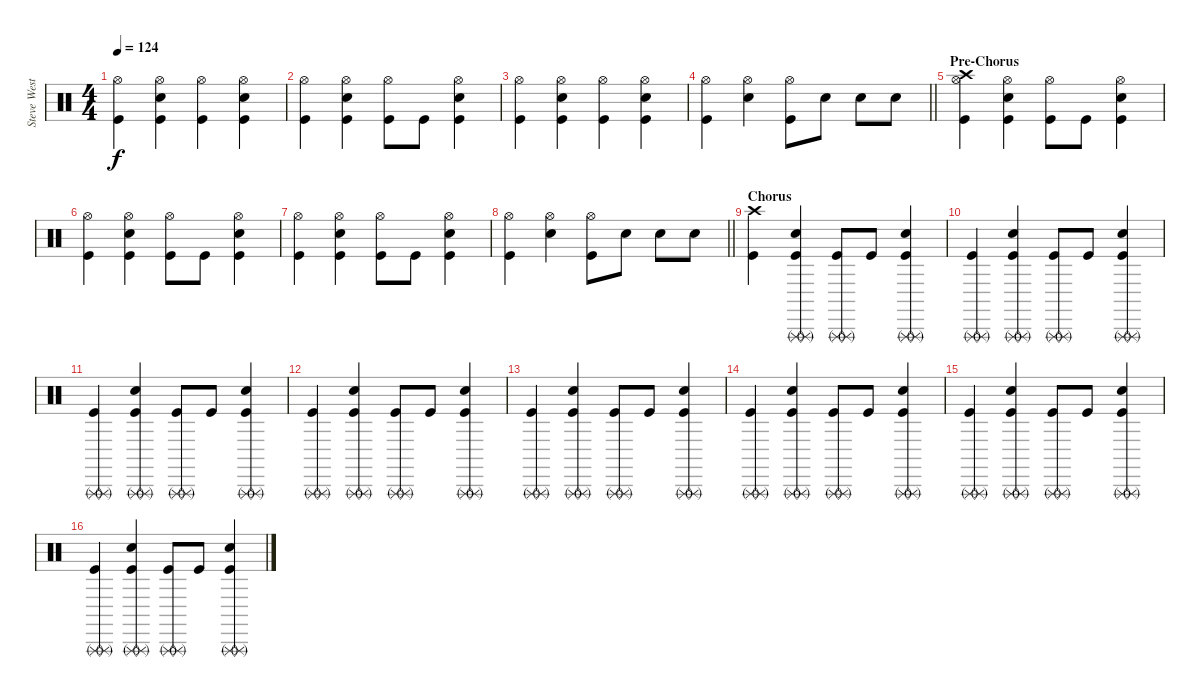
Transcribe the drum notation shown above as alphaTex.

\track ("Steve West" "Steve West") {instrument percussion}
\staff {score}
\articulation defaults
\ts (4 4)
\tempo 124
\clef neutral
\ks c
("Hi-Hat (open)" "Kick (hit)").4{dy f} ("Hi-Hat (open)" "Snare (hit) 2" "Kick (hit)").4 ("Hi-Hat (open)" "Kick (hit)").4 ("Hi-Hat (open)" "Snare (hit) 2" "Kick (hit)").4 |
("Hi-Hat (open)" "Kick (hit)").4 ("Hi-Hat (open)" "Snare (hit) 2" "Kick (hit)").4 ("Hi-Hat (open)" "Kick (hit)").8 "Kick (hit)".8 ("Hi-Hat (open)" "Snare (hit) 2" "Kick (hit)").4 |
("Hi-Hat (open)" "Kick (hit)").4 ("Hi-Hat (open)" "Snare (hit) 2" "Kick (hit)").4 ("Hi-Hat (open)" "Kick (hit)").4 ("Hi-Hat (open)" "Snare (hit) 2" "Kick (hit)").4 |
\barLineRight lightlight
("Hi-Hat (open)" "Kick (hit)").4 ("Hi-Hat (open)" "Snare (hit) 2").4 ("Hi-Hat (open)" "Kick (hit)").8 "Snare (hit) 2".8 "Snare (hit) 2".8 "Snare (hit) 2".8 |
\section ("" "Pre-Chorus")
("Crash high (hit)" "Hi-Hat (open)" "Kick (hit)").4 ("Hi-Hat (open)" "Snare (hit) 2" "Kick (hit)").4 ("Hi-Hat (open)" "Kick (hit)").8 "Kick (hit)".8 ("Hi-Hat (open)" "Snare (hit) 2" "Kick (hit)").4 |
("Hi-Hat (open)" "Kick (hit)").4 ("Hi-Hat (open)" "Snare (hit) 2" "Kick (hit)").4 ("Hi-Hat (open)" "Kick (hit)").8 "Kick (hit)".8 ("Hi-Hat (open)" "Snare (hit) 2" "Kick (hit)").4 |
("Hi-Hat (open)" "Kick (hit)").4 ("Hi-Hat (open)" "Snare (hit) 2" "Kick (hit)").4 ("Hi-Hat (open)" "Kick (hit)").8 "Kick (hit)".8 ("Hi-Hat (open)" "Snare (hit) 2" "Kick (hit)").4 |
\barLineRight lightlight
("Hi-Hat (open)" "Kick (hit)").4 ("Hi-Hat (open)" "Snare (hit) 2").4 ("Hi-Hat (open)" "Kick (hit)").8 "Snare (hit) 2".8 "Snare (hit) 2".8 "Snare (hit) 2".8 |
\section ("" "Chorus")
("Crash high (hit)" "Kick (hit)").4 ("Triangle (rnute)" "Triangle (rnute)" "Snare (hit) 2" "Kick (hit)").4 ("Triangle (rnute)" "Triangle (rnute)" "Kick (hit)").8 "Kick (hit)".8 ("Triangle (rnute)" "Triangle (rnute)" "Snare (hit) 2" "Kick (hit)").4 |
("Triangle (rnute)" "Triangle (rnute)" "Kick (hit)").4 ("Triangle (rnute)" "Triangle (rnute)" "Snare (hit) 2" "Kick (hit)").4 ("Triangle (rnute)" "Triangle (rnute)" "Kick (hit)").8 "Kick (hit)".8 ("Triangle (rnute)" "Triangle (rnute)" "Snare (hit) 2" "Kick (hit)").4 |
("Triangle (rnute)" "Triangle (rnute)" "Kick (hit)").4 ("Triangle (rnute)" "Triangle (rnute)" "Snare (hit) 2" "Kick (hit)").4 ("Triangle (rnute)" "Triangle (rnute)" "Kick (hit)").8 "Kick (hit)".8 ("Triangle (rnute)" "Triangle (rnute)" "Snare (hit) 2" "Kick (hit)").4 |
("Triangle (rnute)" "Triangle (rnute)" "Kick (hit)").4 ("Triangle (rnute)" "Triangle (rnute)" "Snare (hit) 2" "Kick (hit)").4 ("Triangle (rnute)" "Triangle (rnute)" "Kick (hit)").8 "Kick (hit)".8 ("Triangle (rnute)" "Triangle (rnute)" "Snare (hit) 2" "Kick (hit)").4 |
("Triangle (rnute)" "Triangle (rnute)" "Kick (hit)").4 ("Triangle (rnute)" "Triangle (rnute)" "Snare (hit) 2" "Kick (hit)").4 ("Triangle (rnute)" "Triangle (rnute)" "Kick (hit)").8 "Kick (hit)".8 ("Triangle (rnute)" "Triangle (rnute)" "Snare (hit) 2" "Kick (hit)").4 |
("Triangle (rnute)" "Triangle (rnute)" "Kick (hit)").4 ("Triangle (rnute)" "Triangle (rnute)" "Snare (hit) 2" "Kick (hit)").4 ("Triangle (rnute)" "Triangle (rnute)" "Kick (hit)").8 "Kick (hit)".8 ("Triangle (rnute)" "Triangle (rnute)" "Snare (hit) 2" "Kick (hit)").4 |
("Triangle (rnute)" "Triangle (rnute)" "Kick (hit)").4 ("Triangle (rnute)" "Triangle (rnute)" "Snare (hit) 2" "Kick (hit)").4 ("Triangle (rnute)" "Triangle (rnute)" "Kick (hit)").8 "Kick (hit)".8 ("Triangle (rnute)" "Triangle (rnute)" "Snare (hit) 2" "Kick (hit)").4 |
("Triangle (rnute)" "Triangle (rnute)" "Kick (hit)").4 ("Triangle (rnute)" "Triangle (rnute)" "Snare (hit) 2" "Kick (hit)").4 ("Triangle (rnute)" "Triangle (rnute)" "Kick (hit)").8 "Kick (hit)".8 ("Triangle (rnute)" "Triangle (rnute)" "Snare (hit) 2" "Kick (hit)").4
